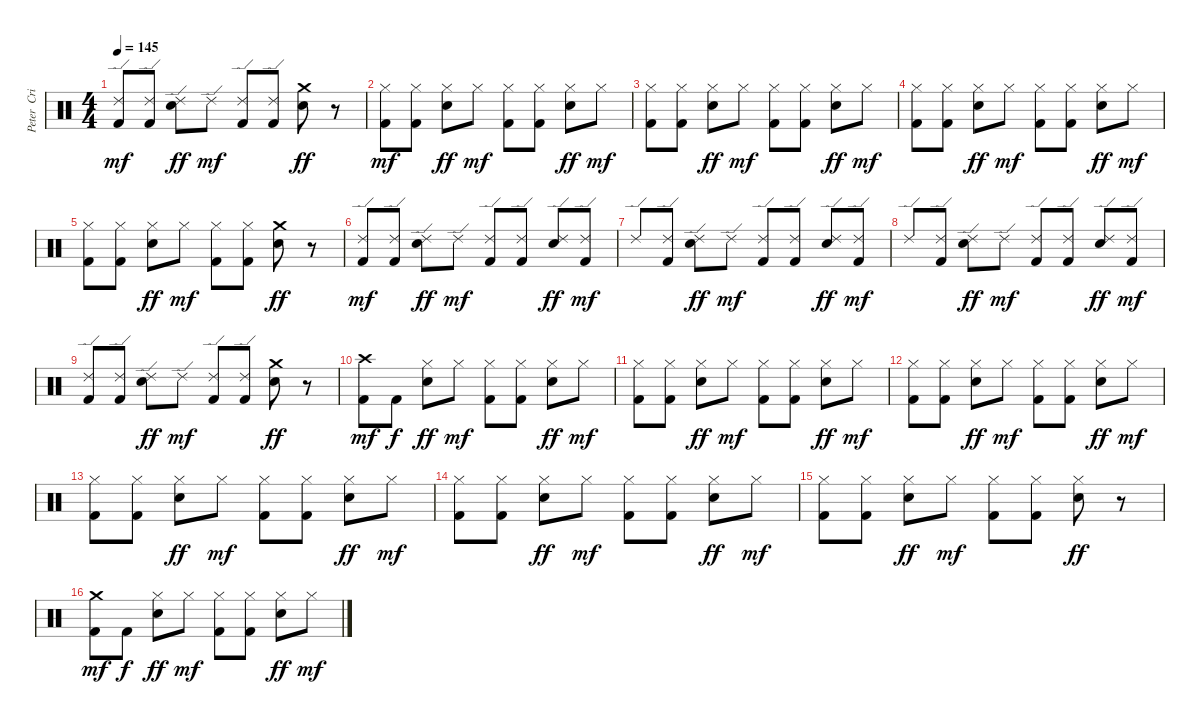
\track ("Peter  Criss [Drums]" "Peter  Cri") {instrument percussion}
\staff {score}
\articulation defaults
\ts (4 4)
\tempo 145
\clef neutral
\ks c
("Ride (edge) 2" "Kick (hit) 2").8{dy mf} ("Ride (edge) 2" "Kick (hit) 2").8 ("Ride (edge) 2" "Electric Snare (hit)").8{dy ff} "Ride (edge) 2".8{dy mf} ("Ride (edge) 2" "Kick (hit) 2").8 ("Ride (edge) 2" "Kick (hit) 2").8 ("Crash medium (hit)" "Electric Snare (hit)").8{dy ff} r.8 |
("Hi-Hat (closed)" "Kick (hit) 2").8{dy mf} ("Hi-Hat (closed)" "Kick (hit) 2").8 ("Hi-Hat (closed)" "Electric Snare (hit)").8{dy ff} "Hi-Hat (closed)".8{dy mf} ("Hi-Hat (closed)" "Kick (hit) 2").8 ("Hi-Hat (closed)" "Kick (hit) 2").8 ("Hi-Hat (closed)" "Electric Snare (hit)").8{dy ff} "Hi-Hat (closed)".8{dy mf} |
("Hi-Hat (closed)" "Kick (hit) 2").8 ("Hi-Hat (closed)" "Kick (hit) 2").8 ("Hi-Hat (closed)" "Electric Snare (hit)").8{dy ff} "Hi-Hat (closed)".8{dy mf} ("Hi-Hat (closed)" "Kick (hit) 2").8 ("Hi-Hat (closed)" "Kick (hit) 2").8 ("Hi-Hat (closed)" "Electric Snare (hit)").8{dy ff} "Hi-Hat (closed)".8{dy mf} |
("Hi-Hat (closed)" "Kick (hit) 2").8 ("Hi-Hat (closed)" "Kick (hit) 2").8 ("Hi-Hat (closed)" "Electric Snare (hit)").8{dy ff} "Hi-Hat (closed)".8{dy mf} ("Hi-Hat (closed)" "Kick (hit) 2").8 ("Hi-Hat (closed)" "Kick (hit) 2").8 ("Hi-Hat (closed)" "Electric Snare (hit)").8{dy ff} "Hi-Hat (closed)".8{dy mf} |
("Hi-Hat (closed)" "Kick (hit) 2").8 ("Hi-Hat (closed)" "Kick (hit) 2").8 ("Hi-Hat (closed)" "Electric Snare (hit)").8{dy ff} "Hi-Hat (closed)".8{dy mf} ("Hi-Hat (closed)" "Kick (hit) 2").8 ("Hi-Hat (closed)" "Kick (hit) 2").8 ("Crash medium (hit)" "Electric Snare (hit)").8{dy ff} r.8 |
("Ride (edge) 2" "Kick (hit) 2").8{dy mf} ("Ride (edge) 2" "Kick (hit) 2").8 ("Ride (edge) 2" "Electric Snare (hit)").8{dy ff} "Ride (edge) 2".8{dy mf} ("Ride (edge) 2" "Kick (hit) 2").8 ("Ride (edge) 2" "Kick (hit) 2").8 ("Ride (edge) 2" "Electric Snare (hit)").8{dy ff} ("Ride (edge) 2" "Kick (hit) 2").8{dy mf} |
"Ride (edge) 2".8 ("Ride (edge) 2" "Kick (hit) 2").8 ("Ride (edge) 2" "Electric Snare (hit)").8{dy ff} "Ride (edge) 2".8{dy mf} ("Ride (edge) 2" "Kick (hit) 2").8 ("Ride (edge) 2" "Kick (hit) 2").8 ("Ride (edge) 2" "Electric Snare (hit)").8{dy ff} ("Ride (edge) 2" "Kick (hit) 2").8{dy mf} |
"Ride (edge) 2".8 ("Ride (edge) 2" "Kick (hit) 2").8 ("Ride (edge) 2" "Electric Snare (hit)").8{dy ff} "Ride (edge) 2".8{dy mf} ("Ride (edge) 2" "Kick (hit) 2").8 ("Ride (edge) 2" "Kick (hit) 2").8 ("Ride (edge) 2" "Electric Snare (hit)").8{dy ff} ("Ride (edge) 2" "Kick (hit) 2").8{dy mf} |
("Ride (edge) 2" "Kick (hit) 2").8 ("Ride (edge) 2" "Kick (hit) 2").8 ("Ride (edge) 2" "Electric Snare (hit)").8{dy ff} "Ride (edge) 2".8{dy mf} ("Ride (edge) 2" "Kick (hit) 2").8 ("Ride (edge) 2" "Kick (hit) 2").8 ("Crash medium (hit)" "Electric Snare (hit)").8{dy ff} r.8 |
("Crash high (hit)" "Kick (hit) 2").8{dy mf} "Kick (hit) 2".8{dy f} ("Hi-Hat (closed)" "Electric Snare (hit)").8{dy ff} "Hi-Hat (closed)".8{dy mf} ("Hi-Hat (closed)" "Kick (hit) 2").8 ("Hi-Hat (closed)" "Kick (hit) 2").8 ("Hi-Hat (closed)" "Electric Snare (hit)").8{dy ff} "Hi-Hat (closed)".8{dy mf} |
("Hi-Hat (closed)" "Kick (hit) 2").8 ("Hi-Hat (closed)" "Kick (hit) 2").8 ("Hi-Hat (closed)" "Electric Snare (hit)").8{dy ff} "Hi-Hat (closed)".8{dy mf} ("Hi-Hat (closed)" "Kick (hit) 2").8 ("Hi-Hat (closed)" "Kick (hit) 2").8 ("Hi-Hat (closed)" "Electric Snare (hit)").8{dy ff} "Hi-Hat (closed)".8{dy mf} |
("Hi-Hat (closed)" "Kick (hit) 2").8 ("Hi-Hat (closed)" "Kick (hit) 2").8 ("Hi-Hat (closed)" "Electric Snare (hit)").8{dy ff} "Hi-Hat (closed)".8{dy mf} ("Hi-Hat (closed)" "Kick (hit) 2").8 ("Hi-Hat (closed)" "Kick (hit) 2").8 ("Hi-Hat (closed)" "Electric Snare (hit)").8{dy ff} "Hi-Hat (closed)".8{dy mf} |
("Hi-Hat (closed)" "Kick (hit) 2").8 ("Hi-Hat (closed)" "Kick (hit) 2").8 ("Hi-Hat (closed)" "Electric Snare (hit)").8{dy ff} "Hi-Hat (closed)".8{dy mf} ("Hi-Hat (closed)" "Kick (hit) 2").8 ("Hi-Hat (closed)" "Kick (hit) 2").8 ("Hi-Hat (closed)" "Electric Snare (hit)").8{dy ff} "Hi-Hat (closed)".8{dy mf} |
("Hi-Hat (closed)" "Kick (hit) 2").8 ("Hi-Hat (closed)" "Kick (hit) 2").8 ("Hi-Hat (closed)" "Electric Snare (hit)").8{dy ff} "Hi-Hat (closed)".8{dy mf} ("Hi-Hat (closed)" "Kick (hit) 2").8 ("Hi-Hat (closed)" "Kick (hit) 2").8 ("Hi-Hat (closed)" "Electric Snare (hit)").8{dy ff} "Hi-Hat (closed)".8{dy mf} |
("Hi-Hat (closed)" "Kick (hit) 2").8 ("Hi-Hat (closed)" "Kick (hit) 2").8 ("Hi-Hat (closed)" "Electric Snare (hit)").8{dy ff} "Hi-Hat (closed)".8{dy mf} ("Hi-Hat (closed)" "Kick (hit) 2").8 ("Hi-Hat (closed)" "Kick (hit) 2").8 ("Hi-Hat (closed)" "Electric Snare (hit)").8{dy ff} r.8 |
("Crash medium (hit)" "Kick (hit) 2").8{dy mf} "Kick (hit) 2".8{dy f} ("Hi-Hat (closed)" "Electric Snare (hit)").8{dy ff} "Hi-Hat (closed)".8{dy mf} ("Hi-Hat (closed)" "Kick (hit) 2").8 ("Hi-Hat (closed)" "Kick (hit) 2").8 ("Hi-Hat (closed)" "Electric Snare (hit)").8{dy ff} "Hi-Hat (closed)".8{dy mf}
